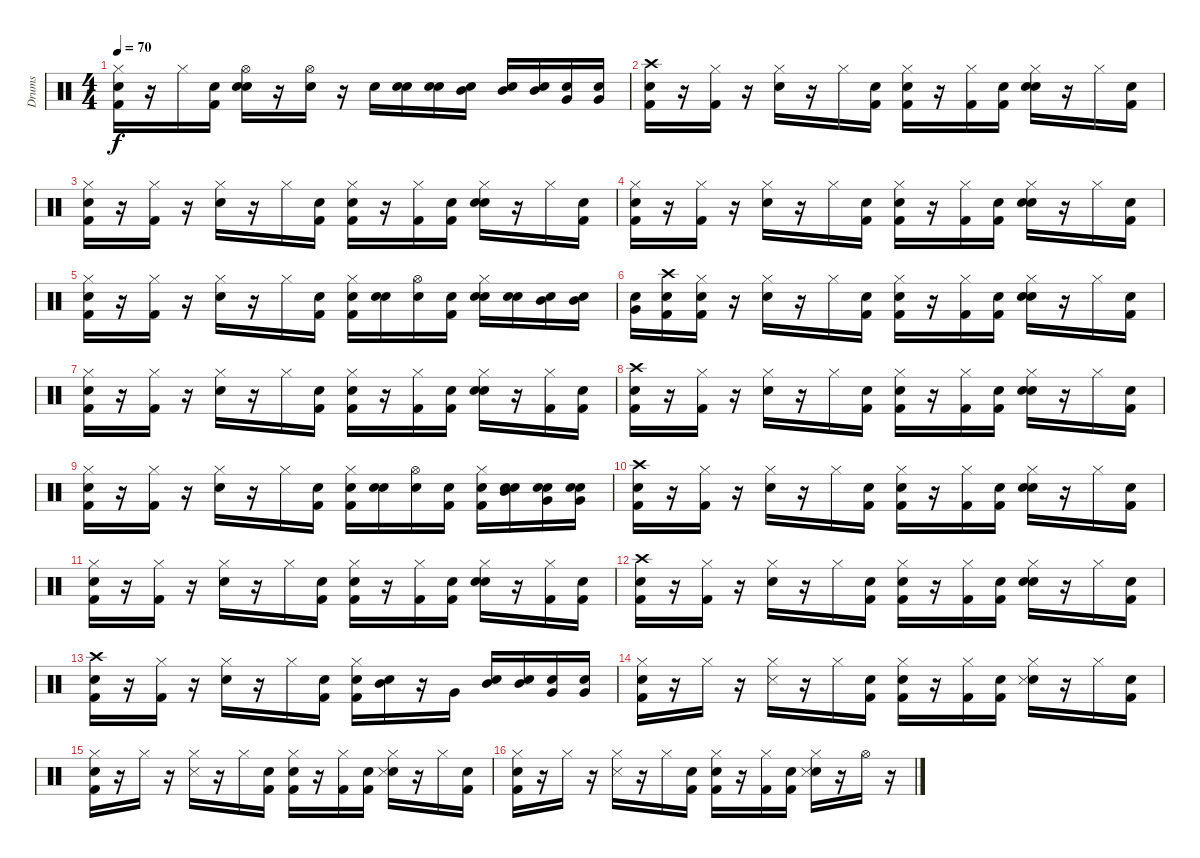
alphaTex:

\track ("Drums" "Drums") {instrument percussion}
\staff {score}
\articulation defaults
\ts (4 4)
\tempo 70
\clef neutral
\ks c
("Snare (hit)" "Kick (hit) 2" "Hi-Hat (closed)").16{dy f} r.16 "Hi-Hat (closed)".16 ("Snare (hit)" "Kick (hit) 2").16 ("Snare (hit)" "Snare (hit) 2" "Hi-Hat (open)").16 r.16 ("Snare (hit) 2" "Hi-Hat (open)").16 r.16 "Snare (hit) 2".16 ("Snare (hit)" "Snare (hit) 2").16 ("Snare (hit)" "Snare (hit) 2").16 ("Snare (hit)" "Mid Tom (hit)").16 ("Snare (hit)" "Mid Tom (hit)").16 ("Snare (hit)" "Mid Tom (hit)").16 ("Snare (hit)" "Very Low Tom (hit)").16 ("Snare (hit)" "Very Low Tom (hit)").16 |
("Snare (hit)" "Kick (hit) 2" "Crash high (hit)").16 r.16 ("Kick (hit) 2" "Hi-Hat (closed)").16 r.16 ("Snare (hit) 2" "Hi-Hat (closed)").16 r.16 "Hi-Hat (closed)".16 ("Snare (hit)" "Kick (hit) 2").16 ("Snare (hit)" "Kick (hit) 2" "Hi-Hat (closed)").16 r.16 ("Kick (hit) 2" "Hi-Hat (closed)").16 ("Snare (hit)" "Kick (hit) 2").16 ("Snare (hit)" "Snare (hit) 2" "Hi-Hat (closed)").16 r.16 "Hi-Hat (closed)".16 ("Snare (hit)" "Kick (hit) 2").16 |
("Snare (hit)" "Kick (hit) 2" "Hi-Hat (closed)").16 r.16 ("Kick (hit) 2" "Hi-Hat (closed)").16 r.16 ("Snare (hit) 2" "Hi-Hat (closed)").16 r.16 "Hi-Hat (closed)".16 ("Snare (hit)" "Kick (hit) 2").16 ("Snare (hit)" "Kick (hit) 2" "Hi-Hat (closed)").16 r.16 ("Kick (hit) 2" "Hi-Hat (closed)").16 ("Snare (hit)" "Kick (hit) 2").16 ("Snare (hit)" "Snare (hit) 2" "Hi-Hat (closed)").16 r.16 "Hi-Hat (closed)".16 ("Snare (hit)" "Kick (hit) 2").16 |
("Snare (hit)" "Kick (hit) 2" "Hi-Hat (closed)").16 r.16 ("Kick (hit) 2" "Hi-Hat (closed)").16 r.16 ("Snare (hit) 2" "Hi-Hat (closed)").16 r.16 "Hi-Hat (closed)".16 ("Snare (hit)" "Kick (hit) 2").16 ("Snare (hit)" "Kick (hit) 2" "Hi-Hat (closed)").16 r.16 ("Kick (hit) 2" "Hi-Hat (closed)").16 ("Snare (hit)" "Kick (hit) 2").16 ("Snare (hit)" "Snare (hit) 2" "Hi-Hat (closed)").16 r.16 "Hi-Hat (closed)".16 ("Snare (hit)" "Kick (hit) 2").16 |
("Snare (hit)" "Kick (hit) 2" "Hi-Hat (closed)").16 r.16 ("Kick (hit) 2" "Hi-Hat (closed)").16 r.16 ("Snare (hit) 2" "Hi-Hat (closed)").16 r.16 "Hi-Hat (closed)".16 ("Snare (hit)" "Kick (hit) 2").16 ("Snare (hit)" "Kick (hit) 2" "Hi-Hat (closed)").16 ("Snare (hit)" "Snare (hit) 2").16 ("Snare (hit)" "Hi-Hat (open)").16 ("Snare (hit)" "Kick (hit) 2").16 ("Snare (hit)" "Snare (hit) 2" "Hi-Hat (closed)").16 ("Snare (hit)" "Snare (hit) 2").16 ("Snare (hit)" "Mid Tom (hit)").16 ("Snare (hit)" "Mid Tom (hit)").16 |
("Snare (hit)" "Very Low Tom (hit)").16 ("Snare (hit)" "Kick (hit) 2" "Crash high (hit)").16 ("Snare (hit)" "Kick (hit) 2" "Hi-Hat (closed)").16 r.16 ("Snare (hit) 2" "Hi-Hat (closed)").16 r.16 "Hi-Hat (closed)".16 ("Snare (hit)" "Kick (hit) 2").16 ("Snare (hit)" "Kick (hit) 2" "Hi-Hat (closed)").16 r.16 ("Kick (hit) 2" "Hi-Hat (closed)").16 ("Snare (hit)" "Kick (hit) 2").16 ("Snare (hit)" "Snare (hit) 2" "Hi-Hat (closed)").16 r.16 "Hi-Hat (closed)".16 ("Snare (hit)" "Kick (hit) 2").16 |
("Snare (hit)" "Kick (hit) 2" "Hi-Hat (closed)").16 r.16 ("Kick (hit) 2" "Hi-Hat (closed)").16 r.16 ("Snare (hit) 2" "Hi-Hat (closed)").16 r.16 "Hi-Hat (closed)".16 ("Snare (hit)" "Kick (hit) 2").16 ("Snare (hit)" "Kick (hit) 2" "Hi-Hat (closed)").16 r.16 ("Kick (hit) 2" "Hi-Hat (closed)").16 ("Snare (hit)" "Kick (hit) 2").16 ("Snare (hit)" "Snare (hit) 2" "Hi-Hat (closed)").16 r.16 ("Kick (hit) 2" "Hi-Hat (closed)").16 ("Snare (hit)" "Kick (hit) 2").16 |
("Snare (hit)" "Kick (hit) 2" "Crash high (hit)").16 r.16 ("Kick (hit) 2" "Hi-Hat (closed)").16 r.16 ("Snare (hit) 2" "Hi-Hat (closed)").16 r.16 "Hi-Hat (closed)".16 ("Snare (hit)" "Kick (hit) 2").16 ("Snare (hit)" "Kick (hit) 2" "Hi-Hat (closed)").16 r.16 ("Kick (hit) 2" "Hi-Hat (closed)").16 ("Snare (hit)" "Kick (hit) 2").16 ("Snare (hit)" "Snare (hit) 2" "Hi-Hat (closed)").16 r.16 "Hi-Hat (closed)".16 ("Snare (hit)" "Kick (hit) 2").16 |
("Snare (hit)" "Kick (hit) 2" "Hi-Hat (closed)").16 r.16 ("Kick (hit) 2" "Hi-Hat (closed)").16 r.16 ("Snare (hit) 2" "Hi-Hat (closed)").16 r.16 "Hi-Hat (closed)".16 ("Snare (hit)" "Kick (hit) 2").16 ("Snare (hit)" "Kick (hit) 2" "Hi-Hat (closed)").16 ("Snare (hit)" "Snare (hit) 2").16 ("Snare (hit)" "Hi-Hat (open)").16 ("Snare (hit)" "Kick (hit) 2").16 ("Snare (hit)" "Kick (hit) 2" "Hi-Hat (closed)").16 ("Snare (hit)" "Snare (hit) 2" "Mid Tom (hit)").16 ("Snare (hit)" "Snare (hit) 2" "Very Low Tom (hit)").16 ("Snare (hit)" "Snare (hit) 2" "Very Low Tom (hit)").16 |
("Snare (hit)" "Kick (hit) 2" "Crash high (hit)").16 r.16 ("Kick (hit) 2" "Hi-Hat (closed)").16 r.16 ("Snare (hit) 2" "Hi-Hat (closed)").16 r.16 "Hi-Hat (closed)".16 ("Snare (hit)" "Kick (hit) 2").16 ("Snare (hit)" "Kick (hit) 2" "Hi-Hat (closed)").16 r.16 ("Kick (hit) 2" "Hi-Hat (closed)").16 ("Snare (hit)" "Kick (hit) 2").16 ("Snare (hit)" "Snare (hit) 2" "Hi-Hat (closed)").16 r.16 "Hi-Hat (closed)".16 ("Snare (hit)" "Kick (hit) 2").16 |
("Snare (hit)" "Kick (hit) 2" "Hi-Hat (closed)").16 r.16 ("Kick (hit) 2" "Hi-Hat (closed)").16 r.16 ("Snare (hit) 2" "Hi-Hat (closed)").16 r.16 "Hi-Hat (closed)".16 ("Snare (hit)" "Kick (hit) 2").16 ("Snare (hit)" "Kick (hit) 2" "Hi-Hat (closed)").16 r.16 ("Kick (hit) 2" "Hi-Hat (closed)").16 ("Snare (hit)" "Kick (hit) 2").16 ("Snare (hit)" "Snare (hit) 2" "Hi-Hat (closed)").16 r.16 ("Kick (hit) 2" "Hi-Hat (closed)").16 ("Snare (hit)" "Kick (hit) 2").16 |
("Snare (hit)" "Kick (hit) 2" "Crash high (hit)").16 r.16 ("Kick (hit) 2" "Hi-Hat (closed)").16 r.16 ("Snare (hit) 2" "Hi-Hat (closed)").16 r.16 "Hi-Hat (closed)".16 ("Snare (hit)" "Kick (hit) 2").16 ("Snare (hit)" "Kick (hit) 2" "Hi-Hat (closed)").16 r.16 ("Kick (hit) 2" "Hi-Hat (closed)").16 ("Snare (hit)" "Kick (hit) 2").16 ("Snare (hit)" "Snare (hit) 2" "Hi-Hat (closed)").16 r.16 "Hi-Hat (closed)".16 ("Snare (hit)" "Kick (hit) 2").16 |
("Snare (hit)" "Kick (hit) 2" "Crash high (hit)").16 r.16 ("Kick (hit) 2" "Hi-Hat (closed)").16 r.16 ("Snare (hit) 2" "Hi-Hat (closed)").16 r.16 "Hi-Hat (closed)".16 ("Snare (hit)" "Kick (hit) 2").16 ("Snare (hit)" "Kick (hit) 2" "Hi-Hat (closed)").16 ("Snare (hit)" "Mid Tom (hit)").16 r.16 "Very Low Tom (hit)".16 ("Snare (hit)" "Mid Tom (hit)").16 ("Snare (hit)" "Mid Tom (hit)").16 ("Snare (hit)" "Very Low Tom (hit)").16 ("Snare (hit)" "Very Low Tom (hit)").16 |
("Snare (hit)" "Kick (hit) 2" "Hi-Hat (closed)").16 r.16 "Hi-Hat (closed)".16 r.16 ("Snare (side stick) 3" "Hi-Hat (closed)").16 r.16 "Hi-Hat (closed)".16 ("Snare (hit)" "Kick (hit) 2").16 ("Snare (hit)" "Kick (hit) 2" "Hi-Hat (closed)").16 r.16 ("Kick (hit) 2" "Hi-Hat (closed)").16 ("Snare (hit)" "Kick (hit) 2").16 ("Snare (hit)" "Snare (side stick) 3" "Hi-Hat (closed)").16 r.16 "Hi-Hat (closed)".16 ("Snare (hit)" "Kick (hit) 2").16 |
("Snare (hit)" "Kick (hit) 2" "Hi-Hat (closed)").16 r.16 "Hi-Hat (closed)".16 r.16 ("Snare (side stick) 3" "Hi-Hat (closed)").16 r.16 "Hi-Hat (closed)".16 ("Snare (hit)" "Kick (hit) 2").16 ("Snare (hit)" "Kick (hit) 2" "Hi-Hat (closed)").16 r.16 ("Kick (hit) 2" "Hi-Hat (closed)").16 ("Snare (hit)" "Kick (hit) 2").16 ("Snare (hit)" "Snare (side stick) 3" "Hi-Hat (closed)").16 r.16 "Hi-Hat (closed)".16 ("Snare (hit)" "Kick (hit) 2").16 |
("Snare (hit)" "Kick (hit) 2" "Hi-Hat (closed)").16 r.16 "Hi-Hat (closed)".16 r.16 ("Snare (side stick) 3" "Hi-Hat (closed)").16 r.16 "Hi-Hat (closed)".16 ("Snare (hit)" "Kick (hit) 2").16 ("Snare (hit)" "Kick (hit) 2" "Hi-Hat (closed)").16 r.16 ("Kick (hit) 2" "Hi-Hat (closed)").16 ("Snare (hit)" "Kick (hit) 2").16 ("Snare (hit)" "Snare (side stick) 3" "Hi-Hat (closed)").16 r.16 "Hi-Hat (open)".16 r.16
